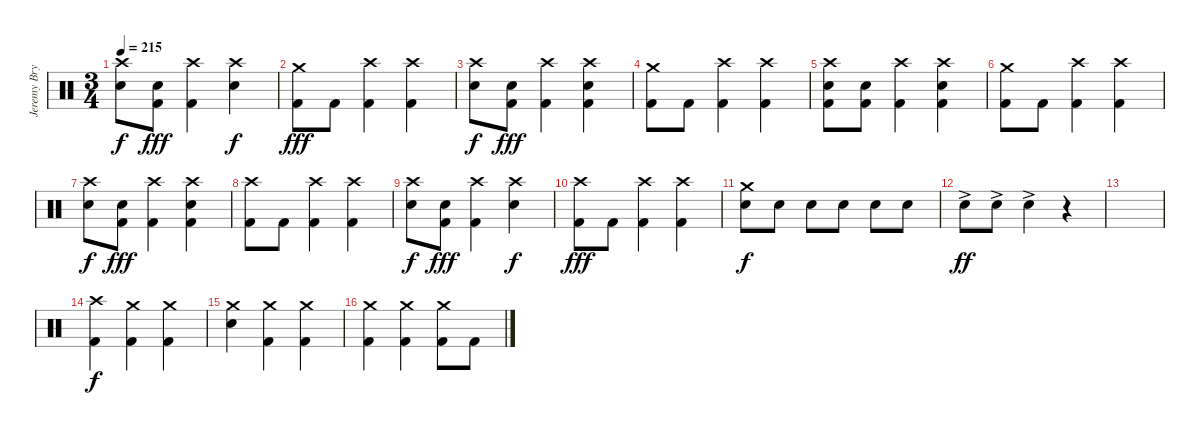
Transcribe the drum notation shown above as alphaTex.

\track ("Jeremy Bryan - Drums" "Jeremy Bry") {instrument percussion}
\staff {score}
\articulation defaults
\ts (3 4)
\tempo 215
\clef neutral
\ks c
("Crash high (hit)" "Electric Snare (hit)").8{dy f} ("Electric Snare (hit)" "Kick (hit) 2").8{dy fff} ("Crash high (hit)" "Kick (hit) 2").4 ("Crash high (hit)" "Electric Snare (hit)").4{dy f} |
("Crash medium (hit)" "Kick (hit) 2").8{dy fff} "Kick (hit) 2".8 ("Crash high (hit)" "Kick (hit) 2").4 ("Crash high (hit)" "Kick (hit) 2").4 |
("Crash high (hit)" "Electric Snare (hit)").8{dy f} ("Electric Snare (hit)" "Kick (hit) 2").8{dy fff} ("Crash high (hit)" "Kick (hit) 2").4 ("Crash high (hit)" "Electric Snare (hit)" "Kick (hit) 2").4 |
("Crash medium (hit)" "Kick (hit) 2").8 "Kick (hit) 2".8 ("Crash high (hit)" "Kick (hit) 2").4 ("Crash high (hit)" "Kick (hit) 2").4 |
("Crash high (hit)" "Electric Snare (hit)" "Kick (hit) 2").8 ("Electric Snare (hit)" "Kick (hit) 2").8 ("Crash high (hit)" "Kick (hit) 2").4 ("Crash high (hit)" "Electric Snare (hit)" "Kick (hit) 2").4 |
("Crash medium (hit)" "Kick (hit) 2").8{volume 11} "Kick (hit) 2".8 ("Crash high (hit)" "Kick (hit) 2").4 ("Crash high (hit)" "Kick (hit) 2").4 |
("Crash high (hit)" "Electric Snare (hit)").8{dy f} ("Electric Snare (hit)" "Kick (hit) 2").8{dy fff} ("Crash high (hit)" "Kick (hit) 2").4 ("Crash high (hit)" "Electric Snare (hit)" "Kick (hit) 2").4 |
("Crash high (hit)" "Kick (hit) 2").8 "Kick (hit) 2".8 ("Crash high (hit)" "Kick (hit) 2").4 ("Crash high (hit)" "Kick (hit) 2").4 |
("Crash high (hit)" "Electric Snare (hit)").8{dy f} ("Electric Snare (hit)" "Kick (hit) 2").8{dy fff} ("Crash high (hit)" "Kick (hit) 2").4 ("Crash high (hit)" "Electric Snare (hit)").4{dy f} |
("Crash high (hit)" "Kick (hit) 2").8{dy fff} "Kick (hit) 2".8 ("Crash high (hit)" "Kick (hit) 2").4 ("Crash high (hit)" "Kick (hit) 2").4 |
("Crash medium (hit)" "Electric Snare (hit)").8{dy f} "Electric Snare (hit)".8 "Electric Snare (hit)".8 "Electric Snare (hit)".8 "Electric Snare (hit)".8 "Electric Snare (hit)".8 |
"Electric Snare (hit)"{ac}.8{dy ff} "Electric Snare (hit)"{ac}.8 "Electric Snare (hit)"{ac}.4 r.4 |
|
("Crash high (hit)" "Kick (hit) 2").4{dy f} ("Crash medium (hit)" "Kick (hit) 2").4 ("Crash medium (hit)" "Kick (hit) 2").4 |
("Crash medium (hit)" "Electric Snare (hit)").4 ("Crash medium (hit)" "Kick (hit) 2").4 ("Crash medium (hit)" "Kick (hit) 2").4 |
("Crash medium (hit)" "Kick (hit) 2").4 ("Crash medium (hit)" "Kick (hit) 2").4 ("Crash medium (hit)" "Kick (hit) 2").8 "Kick (hit) 2".8
